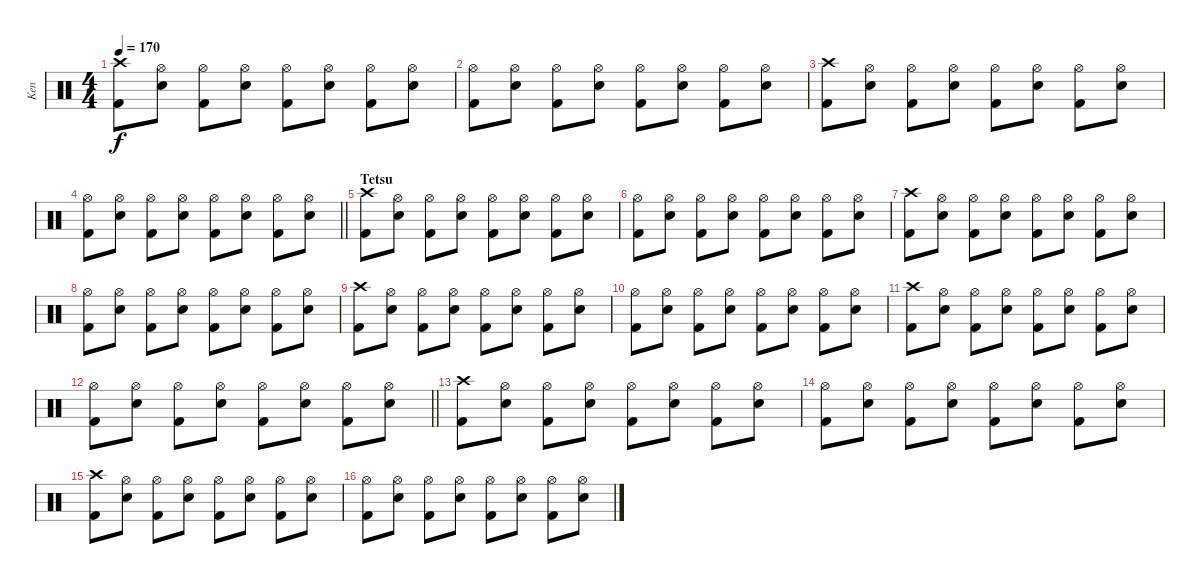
\track ("Ken" "Ken") {instrument percussion}
\staff {score}
\articulation defaults
\ts (4 4)
\tempo 170
\clef neutral
\ks c
("Crash high (hit)" "Kick (hit) 2").8{dy f} ("Hi-Hat (open)" "Snare (hit) 2").8 ("Hi-Hat (open)" "Kick (hit) 2").8 ("Hi-Hat (open)" "Snare (hit) 2").8 ("Hi-Hat (open)" "Kick (hit) 2").8 ("Hi-Hat (open)" "Snare (hit) 2").8 ("Hi-Hat (open)" "Kick (hit) 2").8 ("Hi-Hat (open)" "Snare (hit) 2").8 |
("Hi-Hat (open)" "Kick (hit) 2").8 ("Hi-Hat (open)" "Snare (hit) 2").8 ("Hi-Hat (open)" "Kick (hit) 2").8 ("Hi-Hat (open)" "Snare (hit) 2").8 ("Hi-Hat (open)" "Kick (hit) 2").8 ("Hi-Hat (open)" "Snare (hit) 2").8 ("Hi-Hat (open)" "Kick (hit) 2").8 ("Hi-Hat (open)" "Snare (hit) 2").8 |
("Crash high (hit)" "Kick (hit) 2").8 ("Hi-Hat (open)" "Snare (hit) 2").8 ("Hi-Hat (open)" "Kick (hit) 2").8 ("Hi-Hat (open)" "Snare (hit) 2").8 ("Hi-Hat (open)" "Kick (hit) 2").8 ("Hi-Hat (open)" "Snare (hit) 2").8 ("Hi-Hat (open)" "Kick (hit) 2").8 ("Hi-Hat (open)" "Snare (hit) 2").8 |
\barLineRight lightlight
("Hi-Hat (open)" "Kick (hit) 2").8 ("Hi-Hat (open)" "Snare (hit) 2").8 ("Hi-Hat (open)" "Kick (hit) 2").8 ("Hi-Hat (open)" "Snare (hit) 2").8 ("Hi-Hat (open)" "Kick (hit) 2").8 ("Hi-Hat (open)" "Snare (hit) 2").8 ("Hi-Hat (open)" "Kick (hit) 2").8 ("Hi-Hat (open)" "Snare (hit) 2").8 |
\section ("" "Tetsu ")
("Crash high (hit)" "Kick (hit) 2").8 ("Hi-Hat (open)" "Snare (hit) 2").8 ("Hi-Hat (open)" "Kick (hit) 2").8 ("Hi-Hat (open)" "Snare (hit) 2").8 ("Hi-Hat (open)" "Kick (hit) 2").8 ("Hi-Hat (open)" "Snare (hit) 2").8 ("Hi-Hat (open)" "Kick (hit) 2").8 ("Hi-Hat (open)" "Snare (hit) 2").8 |
("Hi-Hat (open)" "Kick (hit) 2").8 ("Hi-Hat (open)" "Snare (hit) 2").8 ("Hi-Hat (open)" "Kick (hit) 2").8 ("Hi-Hat (open)" "Snare (hit) 2").8 ("Hi-Hat (open)" "Kick (hit) 2").8 ("Hi-Hat (open)" "Snare (hit) 2").8 ("Hi-Hat (open)" "Kick (hit) 2").8 ("Hi-Hat (open)" "Snare (hit) 2").8 |
("Crash high (hit)" "Kick (hit) 2").8 ("Hi-Hat (open)" "Snare (hit) 2").8 ("Hi-Hat (open)" "Kick (hit) 2").8 ("Hi-Hat (open)" "Snare (hit) 2").8 ("Hi-Hat (open)" "Kick (hit) 2").8 ("Hi-Hat (open)" "Snare (hit) 2").8 ("Hi-Hat (open)" "Kick (hit) 2").8 ("Hi-Hat (open)" "Snare (hit) 2").8 |
("Hi-Hat (open)" "Kick (hit) 2").8 ("Hi-Hat (open)" "Snare (hit) 2").8 ("Hi-Hat (open)" "Kick (hit) 2").8 ("Hi-Hat (open)" "Snare (hit) 2").8 ("Hi-Hat (open)" "Kick (hit) 2").8 ("Hi-Hat (open)" "Snare (hit) 2").8 ("Hi-Hat (open)" "Kick (hit) 2").8 ("Hi-Hat (open)" "Snare (hit) 2").8 |
("Crash high (hit)" "Kick (hit) 2").8 ("Hi-Hat (open)" "Snare (hit) 2").8 ("Hi-Hat (open)" "Kick (hit) 2").8 ("Hi-Hat (open)" "Snare (hit) 2").8 ("Hi-Hat (open)" "Kick (hit) 2").8 ("Hi-Hat (open)" "Snare (hit) 2").8 ("Hi-Hat (open)" "Kick (hit) 2").8 ("Hi-Hat (open)" "Snare (hit) 2").8 |
("Hi-Hat (open)" "Kick (hit) 2").8 ("Hi-Hat (open)" "Snare (hit) 2").8 ("Hi-Hat (open)" "Kick (hit) 2").8 ("Hi-Hat (open)" "Snare (hit) 2").8 ("Hi-Hat (open)" "Kick (hit) 2").8 ("Hi-Hat (open)" "Snare (hit) 2").8 ("Hi-Hat (open)" "Kick (hit) 2").8 ("Hi-Hat (open)" "Snare (hit) 2").8 |
("Crash high (hit)" "Kick (hit) 2").8 ("Hi-Hat (open)" "Snare (hit) 2").8 ("Hi-Hat (open)" "Kick (hit) 2").8 ("Hi-Hat (open)" "Snare (hit) 2").8 ("Hi-Hat (open)" "Kick (hit) 2").8 ("Hi-Hat (open)" "Snare (hit) 2").8 ("Hi-Hat (open)" "Kick (hit) 2").8 ("Hi-Hat (open)" "Snare (hit) 2").8 |
\barLineRight lightlight
("Hi-Hat (open)" "Kick (hit) 2").8 ("Hi-Hat (open)" "Snare (hit) 2").8 ("Hi-Hat (open)" "Kick (hit) 2").8 ("Hi-Hat (open)" "Snare (hit) 2").8 ("Hi-Hat (open)" "Kick (hit) 2").8 ("Hi-Hat (open)" "Snare (hit) 2").8 ("Hi-Hat (open)" "Kick (hit) 2").8 ("Hi-Hat (open)" "Snare (hit) 2").8 |
("Crash high (hit)" "Kick (hit) 2").8 ("Hi-Hat (open)" "Snare (hit) 2").8 ("Hi-Hat (open)" "Kick (hit) 2").8 ("Hi-Hat (open)" "Snare (hit) 2").8 ("Hi-Hat (open)" "Kick (hit) 2").8 ("Hi-Hat (open)" "Snare (hit) 2").8 ("Hi-Hat (open)" "Kick (hit) 2").8 ("Hi-Hat (open)" "Snare (hit) 2").8 |
("Hi-Hat (open)" "Kick (hit) 2").8 ("Hi-Hat (open)" "Snare (hit) 2").8 ("Hi-Hat (open)" "Kick (hit) 2").8 ("Hi-Hat (open)" "Snare (hit) 2").8 ("Hi-Hat (open)" "Kick (hit) 2").8 ("Hi-Hat (open)" "Snare (hit) 2").8 ("Hi-Hat (open)" "Kick (hit) 2").8 ("Hi-Hat (open)" "Snare (hit) 2").8 |
("Crash high (hit)" "Kick (hit) 2").8 ("Hi-Hat (open)" "Snare (hit) 2").8 ("Hi-Hat (open)" "Kick (hit) 2").8 ("Hi-Hat (open)" "Snare (hit) 2").8 ("Hi-Hat (open)" "Kick (hit) 2").8 ("Hi-Hat (open)" "Snare (hit) 2").8 ("Hi-Hat (open)" "Kick (hit) 2").8 ("Hi-Hat (open)" "Snare (hit) 2").8 |
("Hi-Hat (open)" "Kick (hit) 2").8 ("Hi-Hat (open)" "Snare (hit) 2").8 ("Hi-Hat (open)" "Kick (hit) 2").8 ("Hi-Hat (open)" "Snare (hit) 2").8 ("Hi-Hat (open)" "Kick (hit) 2").8 ("Hi-Hat (open)" "Snare (hit) 2").8 ("Hi-Hat (open)" "Kick (hit) 2").8 ("Hi-Hat (open)" "Snare (hit) 2").8
